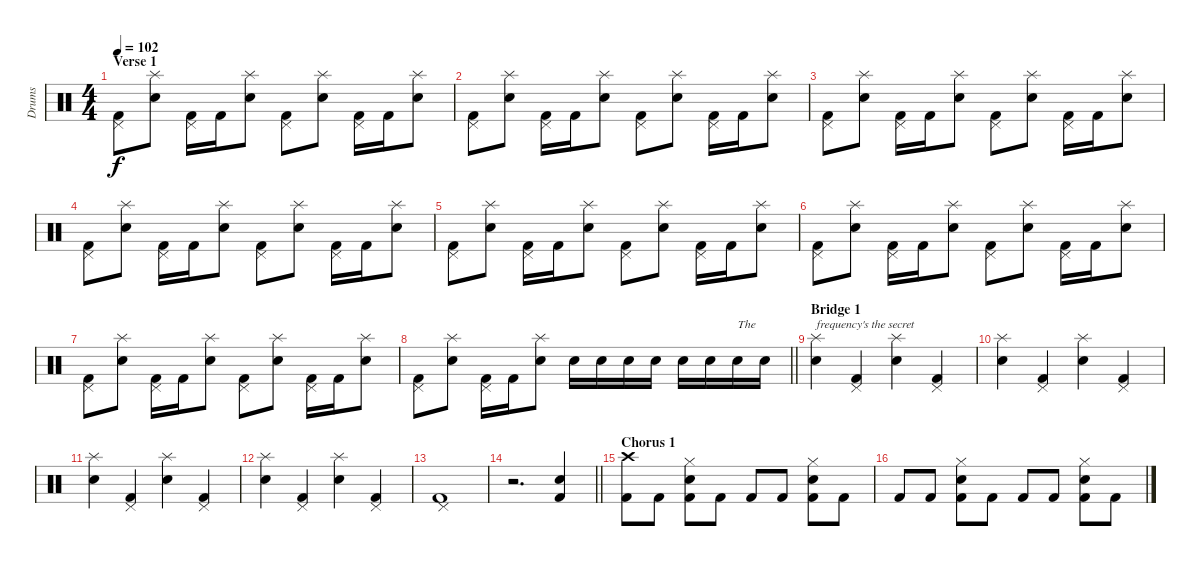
\track ("Drums" "Drums") {instrument percussion}
\staff {score}
\articulation defaults
\ts (4 4)
\section ("" "Verse 1")
\tempo 102
\clef neutral
\ks c
("Pedal Hi-Hat (hit)" "Kick (hit) 2").8{dy f} ("Splash (hit)" "Electric Snare (hit)").8 ("Pedal Hi-Hat (hit)" "Kick (hit) 2").16 "Kick (hit) 2".16 ("Splash (hit)" "Electric Snare (hit)").8 ("Pedal Hi-Hat (hit)" "Kick (hit) 2").8 ("Splash (hit)" "Electric Snare (hit)").8 ("Pedal Hi-Hat (hit)" "Kick (hit) 2").16 "Kick (hit) 2".16 ("Splash (hit)" "Electric Snare (hit)").8 |
("Pedal Hi-Hat (hit)" "Kick (hit) 2").8 ("Splash (hit)" "Electric Snare (hit)").8 ("Pedal Hi-Hat (hit)" "Kick (hit) 2").16 "Kick (hit) 2".16 ("Splash (hit)" "Electric Snare (hit)").8 ("Pedal Hi-Hat (hit)" "Kick (hit) 2").8 ("Splash (hit)" "Electric Snare (hit)").8 ("Pedal Hi-Hat (hit)" "Kick (hit) 2").16 "Kick (hit) 2".16 ("Splash (hit)" "Electric Snare (hit)").8 |
("Pedal Hi-Hat (hit)" "Kick (hit) 2").8 ("Splash (hit)" "Electric Snare (hit)").8 ("Pedal Hi-Hat (hit)" "Kick (hit) 2").16 "Kick (hit) 2".16 ("Splash (hit)" "Electric Snare (hit)").8 ("Pedal Hi-Hat (hit)" "Kick (hit) 2").8 ("Splash (hit)" "Electric Snare (hit)").8 ("Pedal Hi-Hat (hit)" "Kick (hit) 2").16 "Kick (hit) 2".16 ("Splash (hit)" "Electric Snare (hit)").8 |
("Pedal Hi-Hat (hit)" "Kick (hit) 2").8 ("Splash (hit)" "Electric Snare (hit)").8 ("Pedal Hi-Hat (hit)" "Kick (hit) 2").16 "Kick (hit) 2".16 ("Splash (hit)" "Electric Snare (hit)").8 ("Pedal Hi-Hat (hit)" "Kick (hit) 2").8 ("Splash (hit)" "Electric Snare (hit)").8 ("Pedal Hi-Hat (hit)" "Kick (hit) 2").16 "Kick (hit) 2".16 ("Splash (hit)" "Electric Snare (hit)").8 |
("Pedal Hi-Hat (hit)" "Kick (hit) 2").8 ("Splash (hit)" "Electric Snare (hit)").8 ("Pedal Hi-Hat (hit)" "Kick (hit) 2").16 "Kick (hit) 2".16 ("Splash (hit)" "Electric Snare (hit)").8 ("Pedal Hi-Hat (hit)" "Kick (hit) 2").8 ("Splash (hit)" "Electric Snare (hit)").8 ("Pedal Hi-Hat (hit)" "Kick (hit) 2").16 "Kick (hit) 2".16 ("Splash (hit)" "Electric Snare (hit)").8 |
("Pedal Hi-Hat (hit)" "Kick (hit) 2").8 ("Splash (hit)" "Electric Snare (hit)").8 ("Pedal Hi-Hat (hit)" "Kick (hit) 2").16 "Kick (hit) 2".16 ("Splash (hit)" "Electric Snare (hit)").8 ("Pedal Hi-Hat (hit)" "Kick (hit) 2").8 ("Splash (hit)" "Electric Snare (hit)").8 ("Pedal Hi-Hat (hit)" "Kick (hit) 2").16 "Kick (hit) 2".16 ("Splash (hit)" "Electric Snare (hit)").8 |
("Pedal Hi-Hat (hit)" "Kick (hit) 2").8 ("Splash (hit)" "Electric Snare (hit)").8 ("Pedal Hi-Hat (hit)" "Kick (hit) 2").16 "Kick (hit) 2".16 ("Splash (hit)" "Electric Snare (hit)").8 ("Pedal Hi-Hat (hit)" "Kick (hit) 2").8 ("Splash (hit)" "Electric Snare (hit)").8 ("Pedal Hi-Hat (hit)" "Kick (hit) 2").16 "Kick (hit) 2".16 ("Splash (hit)" "Electric Snare (hit)").8 |
\barLineRight lightlight
("Pedal Hi-Hat (hit)" "Kick (hit) 2").8 ("Splash (hit)" "Electric Snare (hit)").8 ("Pedal Hi-Hat (hit)" "Kick (hit) 2").16 "Kick (hit) 2".16 ("Splash (hit)" "Electric Snare (hit)").8 "Snare (hit) 2".16 "Snare (hit) 2".16 "Snare (hit) 2".16 "Snare (hit) 2".16 "Snare (hit) 2".16 "Snare (hit) 2".16 "Snare (hit) 2".16{txt "The"} "Snare (hit) 2".16 |
\section ("" "Bridge 1")
("Splash (hit)" "Electric Snare (hit)").4{txt "frequency's the secret"} ("Pedal Hi-Hat (hit)" "Kick (hit) 2").4 ("Splash (hit)" "Electric Snare (hit)").4 ("Pedal Hi-Hat (hit)" "Kick (hit) 2").4 |
("Splash (hit)" "Electric Snare (hit)").4 ("Pedal Hi-Hat (hit)" "Kick (hit) 2").4 ("Splash (hit)" "Electric Snare (hit)").4 ("Pedal Hi-Hat (hit)" "Kick (hit) 2").4 |
("Splash (hit)" "Electric Snare (hit)").4 ("Pedal Hi-Hat (hit)" "Kick (hit) 2").4 ("Splash (hit)" "Electric Snare (hit)").4 ("Pedal Hi-Hat (hit)" "Kick (hit) 2").4 |
("Splash (hit)" "Electric Snare (hit)").4 ("Pedal Hi-Hat (hit)" "Kick (hit) 2").4 ("Splash (hit)" "Electric Snare (hit)").4 ("Pedal Hi-Hat (hit)" "Kick (hit) 2").4 |
("Pedal Hi-Hat (hit)" "Kick (hit) 2").1 |
\barLineRight lightlight
r.2{d} ("Kick (hit) 2" "Snare (hit) 2").4 |
\section ("" "Chorus 1")
("Crash high (hit)" "Kick (hit) 2").8 "Kick (hit) 2".8 ("Hi-Hat (closed)" "Snare (hit) 2" "Kick (hit) 2").8 "Kick (hit) 2".8 "Kick (hit) 2".8 "Kick (hit) 2".8 ("Hi-Hat (closed)" "Snare (hit) 2" "Kick (hit) 2").8 "Kick (hit) 2".8 |
"Kick (hit) 2".8 "Kick (hit) 2".8 ("Hi-Hat (closed)" "Snare (hit) 2" "Kick (hit) 2").8 "Kick (hit) 2".8 "Kick (hit) 2".8 "Kick (hit) 2".8 ("Hi-Hat (closed)" "Snare (hit) 2" "Kick (hit) 2").8 "Kick (hit) 2".8
